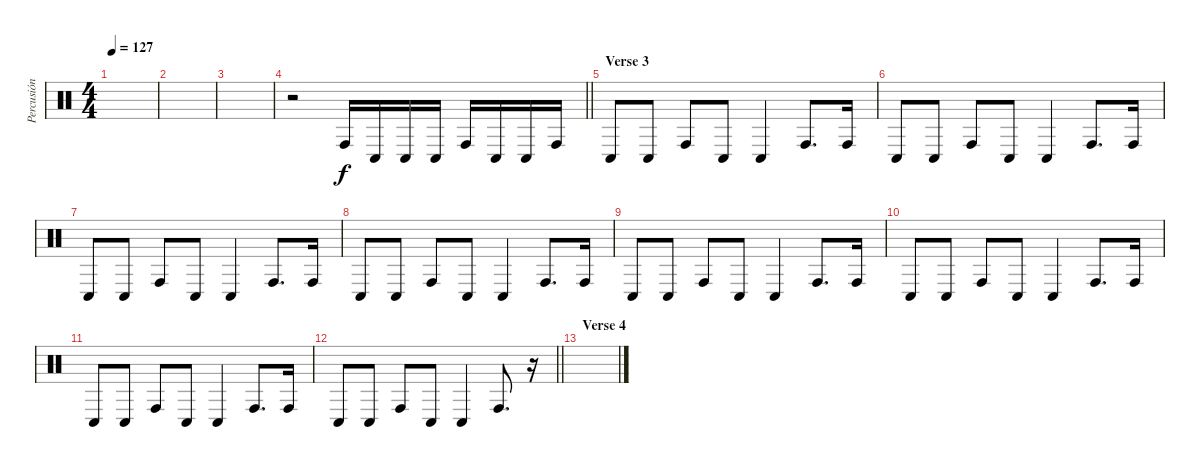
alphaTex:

\track ("Percusión" "Percusión") {instrument percussion}
\staff {score}
\articulation defaults
\ts (4 4)
\tempo 127
\clef neutral
\ks c
|
|
|
\barLineRight lightlight
r.2 "Conga high (hit)".16 "Conga low (hit)".16 "Conga low (hit)".16 "Conga low (hit)".16 "Conga high (hit)".16 "Conga low (hit)".16 "Conga low (hit)".16 "Conga high (hit)".16 |
\section ("" "Verse 3")
"Conga low (hit)".8 "Conga low (hit)".8 "Conga high (hit)".8 "Conga low (hit)".8 "Conga low (hit)".4 "Conga high (hit)".8{d} "Conga high (hit)".16 |
"Conga low (hit)".8 "Conga low (hit)".8 "Conga high (hit)".8 "Conga low (hit)".8 "Conga low (hit)".4 "Conga high (hit)".8{d} "Conga high (hit)".16 |
"Conga low (hit)".8 "Conga low (hit)".8 "Conga high (hit)".8 "Conga low (hit)".8 "Conga low (hit)".4 "Conga high (hit)".8{d} "Conga high (hit)".16 |
"Conga low (hit)".8 "Conga low (hit)".8 "Conga high (hit)".8 "Conga low (hit)".8 "Conga low (hit)".4 "Conga high (hit)".8{d} "Conga high (hit)".16 |
"Conga low (hit)".8 "Conga low (hit)".8 "Conga high (hit)".8 "Conga low (hit)".8 "Conga low (hit)".4 "Conga high (hit)".8{d} "Conga high (hit)".16 |
"Conga low (hit)".8 "Conga low (hit)".8 "Conga high (hit)".8 "Conga low (hit)".8 "Conga low (hit)".4 "Conga high (hit)".8{d} "Conga high (hit)".16 |
"Conga low (hit)".8 "Conga low (hit)".8 "Conga high (hit)".8 "Conga low (hit)".8 "Conga low (hit)".4 "Conga high (hit)".8{d} "Conga high (hit)".16 |
\barLineRight lightlight "Conga low (hit)".8 "Conga low (hit)".8 "Conga high (hit)".8 "Conga low (hit)".8 "Conga low (hit)".4 "Conga high (hit)".8{d}
r.16 |
\section ("" "Verse 4")
